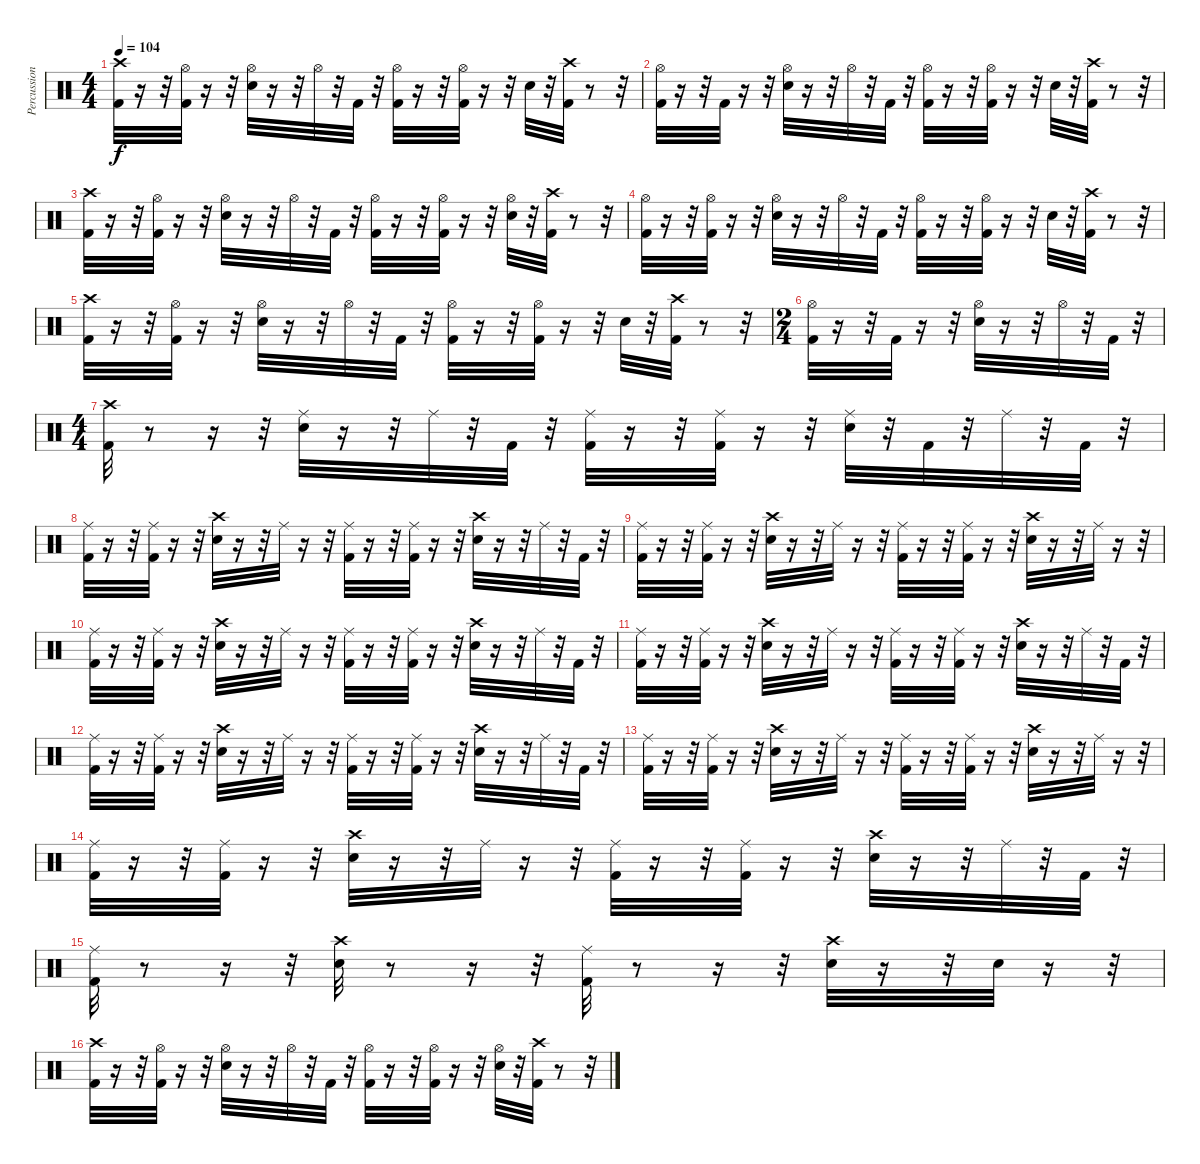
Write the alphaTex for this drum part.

\track ("Percussions" "Percussion") {instrument percussion}
\staff {score}
\articulation defaults
\ts (4 4)
\tempo 104
\clef neutral
\ks c
("Crash high (hit)" "Kick (hit) 2").32{dy f} r.16 r.32 ("Kick (hit) 2" "Hi-Hat (open)").32 r.16 r.32 ("Snare (hit) 2" "Hi-Hat (open)").32 r.16 r.32 "Hi-Hat (open)".32 r.32 "Kick (hit) 2".32 r.32 ("Kick (hit) 2" "Hi-Hat (open)").32 r.16 r.32 ("Hi-Hat (open)" "Kick (hit) 2").32 r.16 r.32 "Snare (hit) 2".32 r.32 ("Crash high (hit)" "Kick (hit) 2").32 r.8 r.32 |
("Kick (hit) 2" "Hi-Hat (open)").32 r.16 r.32 "Kick (hit) 2".32 r.16 r.32 ("Snare (hit) 2" "Hi-Hat (open)").32 r.16 r.32 "Hi-Hat (open)".32 r.32 "Kick (hit) 2".32 r.32 ("Hi-Hat (open)" "Kick (hit) 2").32 r.16 r.32 ("Kick (hit) 2" "Hi-Hat (open)").32 r.16 r.32 "Snare (hit) 2".32 r.32 ("Kick (hit) 2" "Crash high (hit)").32 r.8 r.32 |
("Crash high (hit)" "Kick (hit) 2").32 r.16 r.32 ("Hi-Hat (open)" "Kick (hit) 2").32 r.16 r.32 ("Hi-Hat (open)" "Snare (hit) 2").32 r.16 r.32 "Hi-Hat (open)".32 r.32 "Kick (hit) 2".32 r.32 ("Kick (hit) 2" "Hi-Hat (open)").32 r.16 r.32 ("Kick (hit) 2" "Hi-Hat (open)").32 r.16 r.32 ("Hi-Hat (open)" "Snare (hit) 2").32 r.32 ("Kick (hit) 2" "Crash high (hit)").32 r.8 r.32 |
("Hi-Hat (open)" "Kick (hit) 2").32 r.16 r.32 ("Kick (hit) 2" "Hi-Hat (open)").32 r.16 r.32 ("Hi-Hat (open)" "Snare (hit) 2").32 r.16 r.32 "Hi-Hat (open)".32 r.32 "Kick (hit) 2".32 r.32 ("Kick (hit) 2" "Hi-Hat (open)").32 r.16 r.32 ("Kick (hit) 2" "Hi-Hat (open)").32 r.16 r.32 "Snare (hit) 2".32 r.32 ("Kick (hit) 2" "Crash high (hit)").32 r.8 r.32 |
("Crash high (hit)" "Kick (hit) 2").32 r.16 r.32 ("Kick (hit) 2" "Hi-Hat (open)").32 r.16 r.32 ("Snare (hit) 2" "Hi-Hat (open)").32 r.16 r.32 "Hi-Hat (open)".32 r.32 "Kick (hit) 2".32 r.32 ("Kick (hit) 2" "Hi-Hat (open)").32 r.16 r.32 ("Hi-Hat (open)" "Kick (hit) 2").32 r.16 r.32 "Snare (hit) 2".32 r.32 ("Crash high (hit)" "Kick (hit) 2").32 r.8 r.32 |
\ts (2 4)
("Kick (hit) 2" "Hi-Hat (open)").32 r.16 r.32 "Kick (hit) 2".32 r.16 r.32 ("Snare (hit) 2" "Hi-Hat (open)").32 r.16 r.32 "Hi-Hat (open)".32 r.32 "Kick (hit) 2".32 r.32 |
\ts (4 4)
("Crash high (hit)" "Kick (hit) 2").32 r.8 r.16 r.32 ("Ride (middle)" "Snare (hit) 2").32 r.16 r.32 "Ride (middle)".32 r.32 "Kick (hit) 2".32 r.32 ("Kick (hit) 2" "Ride (middle)").32 r.16 r.32 ("Kick (hit) 2" "Ride (middle)").32 r.16 r.32 ("Ride (middle)" "Snare (hit) 2").32 r.32 "Kick (hit) 2".32 r.32 "Ride (middle)".32 r.32 "Kick (hit) 2".32 r.32 |
("Ride (middle)" "Kick (hit) 2").32 r.16 r.32 ("Ride (middle)" "Kick (hit) 2").32 r.16 r.32 ("Crash high (hit)" "Snare (hit) 2").32 r.16 r.32 "Ride (middle)".32 r.16 r.32 ("Ride (middle)" "Kick (hit) 2").32 r.16 r.32 ("Ride (middle)" "Kick (hit) 2").32 r.16 r.32 ("Crash high (hit)" "Snare (hit) 2").32 r.16 r.32 "Ride (middle)".32 r.32 "Kick (hit) 2".32 r.32 |
("Kick (hit) 2" "Ride (middle)").32 r.16 r.32 ("Ride (middle)" "Kick (hit) 2").32 r.16 r.32 ("Snare (hit) 2" "Crash high (hit)").32 r.16 r.32 "Ride (middle)".32 r.16 r.32 ("Ride (middle)" "Kick (hit) 2").32 r.16 r.32 ("Kick (hit) 2" "Ride (middle)").32 r.16 r.32 ("Snare (hit) 2" "Crash high (hit)").32 r.16 r.32 "Ride (middle)".32 r.16 r.32 |
("Kick (hit) 2" "Ride (middle)").32 r.16 r.32 ("Ride (middle)" "Kick (hit) 2").32 r.16 r.32 ("Crash high (hit)" "Snare (hit) 2").32 r.16 r.32 "Ride (middle)".32 r.16 r.32 ("Kick (hit) 2" "Ride (middle)").32 r.16 r.32 ("Ride (middle)" "Kick (hit) 2").32 r.16 r.32 ("Crash high (hit)" "Snare (hit) 2").32 r.16 r.32 "Ride (middle)".32 r.32 "Kick (hit) 2".32 r.32 |
("Kick (hit) 2" "Ride (middle)").32 r.16 r.32 ("Ride (middle)" "Kick (hit) 2").32 r.16 r.32 ("Crash high (hit)" "Snare (hit) 2").32 r.16 r.32 "Ride (middle)".32 r.16 r.32 ("Ride (middle)" "Kick (hit) 2").32 r.16 r.32 ("Kick (hit) 2" "Ride (middle)").32 r.16 r.32 ("Snare (hit) 2" "Crash high (hit)").32 r.16 r.32 "Ride (middle)".32 r.32 "Kick (hit) 2".32 r.32 |
("Ride (middle)" "Kick (hit) 2").32 r.16 r.32 ("Ride (middle)" "Kick (hit) 2").32 r.16 r.32 ("Crash high (hit)" "Snare (hit) 2").32 r.16 r.32 "Ride (middle)".32 r.16 r.32 ("Ride (middle)" "Kick (hit) 2").32 r.16 r.32 ("Ride (middle)" "Kick (hit) 2").32 r.16 r.32 ("Crash high (hit)" "Snare (hit) 2").32 r.16 r.32 "Ride (middle)".32 r.32 "Kick (hit) 2".32 r.32 |
("Kick (hit) 2" "Ride (middle)").32 r.16 r.32 ("Ride (middle)" "Kick (hit) 2").32 r.16 r.32 ("Snare (hit) 2" "Crash high (hit)").32 r.16 r.32 "Ride (middle)".32 r.16 r.32 ("Ride (middle)" "Kick (hit) 2").32 r.16 r.32 ("Kick (hit) 2" "Ride (middle)").32 r.16 r.32 ("Snare (hit) 2" "Crash high (hit)").32 r.16 r.32 "Ride (middle)".32 r.16 r.32 |
("Kick (hit) 2" "Ride (middle)").32 r.16 r.32 ("Ride (middle)" "Kick (hit) 2").32 r.16 r.32 ("Crash high (hit)" "Snare (hit) 2").32 r.16 r.32 "Ride (middle)".32 r.16 r.32 ("Kick (hit) 2" "Ride (middle)").32 r.16 r.32 ("Ride (middle)" "Kick (hit) 2").32 r.16 r.32 ("Crash high (hit)" "Snare (hit) 2").32 r.16 r.32 "Ride (middle)".32 r.32 "Kick (hit) 2".32 r.32 |
("Kick (hit) 2" "Ride (middle)").32 r.8 r.16 r.32 ("Crash high (hit)" "Snare (hit) 2").32 r.8 r.16 r.32 ("Kick (hit) 2" "Ride (middle)").32 r.8 r.16 r.32 ("Crash high (hit)" "Snare (hit) 2").32 r.16 r.32 "Snare (hit) 2".32 r.16 r.32 |
("Crash high (hit)" "Kick (hit) 2").32 r.16 r.32 ("Hi-Hat (open)" "Kick (hit) 2").32 r.16 r.32 ("Hi-Hat (open)" "Snare (hit) 2").32 r.16 r.32 "Hi-Hat (open)".32 r.32 "Kick (hit) 2".32 r.32 ("Kick (hit) 2" "Hi-Hat (open)").32 r.16 r.32 ("Kick (hit) 2" "Hi-Hat (open)").32 r.16 r.32 ("Hi-Hat (open)" "Snare (hit) 2").32 r.32 ("Kick (hit) 2" "Crash high (hit)").32 r.8 r.32
